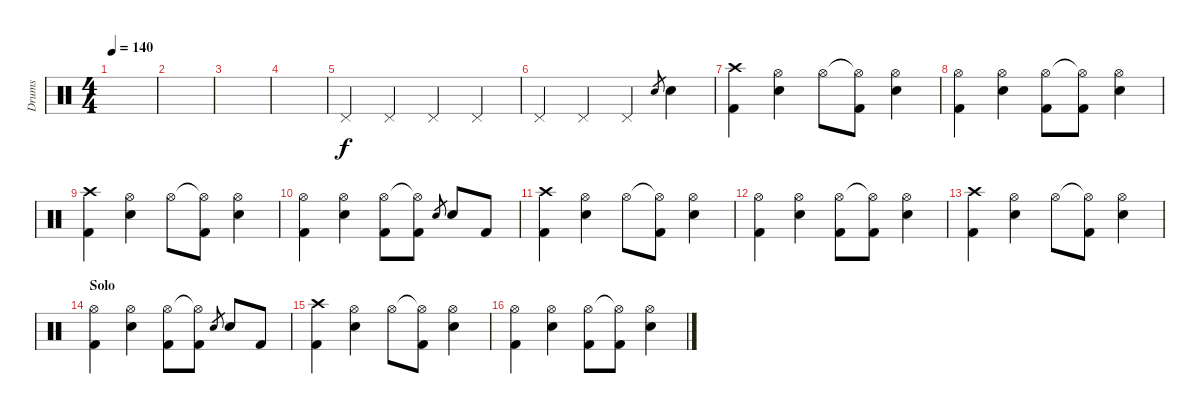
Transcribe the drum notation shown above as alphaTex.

\track ("Drums" "Drums") {instrument percussion}
\staff {score}
\articulation defaults
\ts (4 4)
\tempo 140
\clef neutral
\ks c
|
|
|
|
"Pedal Hi-Hat (hit)".4 "Pedal Hi-Hat (hit)".4 "Pedal Hi-Hat (hit)".4 "Pedal Hi-Hat (hit)".4 |
"Pedal Hi-Hat (hit)".4 "Pedal Hi-Hat (hit)".4 "Pedal Hi-Hat (hit)".4 "Electric Snare (hit)".8{gr} "Electric Snare (hit)".4 |
("Crash high (hit)" "Kick (hit) 2").4 ("Hi-Hat (open)" "Electric Snare (hit)").4 "Hi-Hat (open)".8 ("Hi-Hat (open)"{t} "Kick (hit) 2").8 ("Hi-Hat (open)" "Electric Snare (hit)").4 |
("Hi-Hat (open)" "Kick (hit) 2").4 ("Hi-Hat (open)" "Electric Snare (hit)").4 ("Hi-Hat (open)" "Kick (hit) 2").8 ("Hi-Hat (open)"{t} "Kick (hit) 2").8 ("Hi-Hat (open)" "Electric Snare (hit)").4 |
("Crash high (hit)" "Kick (hit) 2").4 ("Hi-Hat (open)" "Electric Snare (hit)").4 "Hi-Hat (open)".8 ("Hi-Hat (open)"{t} "Kick (hit) 2").8 ("Hi-Hat (open)" "Electric Snare (hit)").4 |
("Hi-Hat (open)" "Kick (hit) 2").4 ("Hi-Hat (open)" "Electric Snare (hit)").4 ("Hi-Hat (open)" "Kick (hit) 2").8 ("Hi-Hat (open)"{t} "Kick (hit) 2").8 "Electric Snare (hit)".8{gr} "Electric Snare (hit)".8 "Kick (hit) 2".8 |
("Crash high (hit)" "Kick (hit) 2").4 ("Hi-Hat (open)" "Electric Snare (hit)").4 "Hi-Hat (open)".8 ("Hi-Hat (open)"{t} "Kick (hit) 2").8 ("Hi-Hat (open)" "Electric Snare (hit)").4 |
("Hi-Hat (open)" "Kick (hit) 2").4 ("Hi-Hat (open)" "Electric Snare (hit)").4 ("Hi-Hat (open)" "Kick (hit) 2").8 ("Hi-Hat (open)"{t} "Kick (hit) 2").8 ("Hi-Hat (open)" "Electric Snare (hit)").4 |
("Crash high (hit)" "Kick (hit) 2").4 ("Hi-Hat (open)" "Electric Snare (hit)").4 "Hi-Hat (open)".8 ("Hi-Hat (open)"{t} "Kick (hit) 2").8 ("Hi-Hat (open)" "Electric Snare (hit)").4 |
\section ("" "Solo")
("Hi-Hat (open)" "Kick (hit) 2").4 ("Hi-Hat (open)" "Electric Snare (hit)").4 ("Hi-Hat (open)" "Kick (hit) 2").8 ("Hi-Hat (open)"{t} "Kick (hit) 2").8 "Electric Snare (hit)".8{gr} "Electric Snare (hit)".8 "Kick (hit) 2".8 |
("Crash high (hit)" "Kick (hit) 2").4 ("Hi-Hat (open)" "Electric Snare (hit)").4 "Hi-Hat (open)".8 ("Hi-Hat (open)"{t} "Kick (hit) 2").8 ("Hi-Hat (open)" "Electric Snare (hit)").4 |
("Hi-Hat (open)" "Kick (hit) 2").4 ("Hi-Hat (open)" "Electric Snare (hit)").4 ("Hi-Hat (open)" "Kick (hit) 2").8 ("Hi-Hat (open)"{t} "Kick (hit) 2").8 ("Hi-Hat (open)" "Electric Snare (hit)").4
